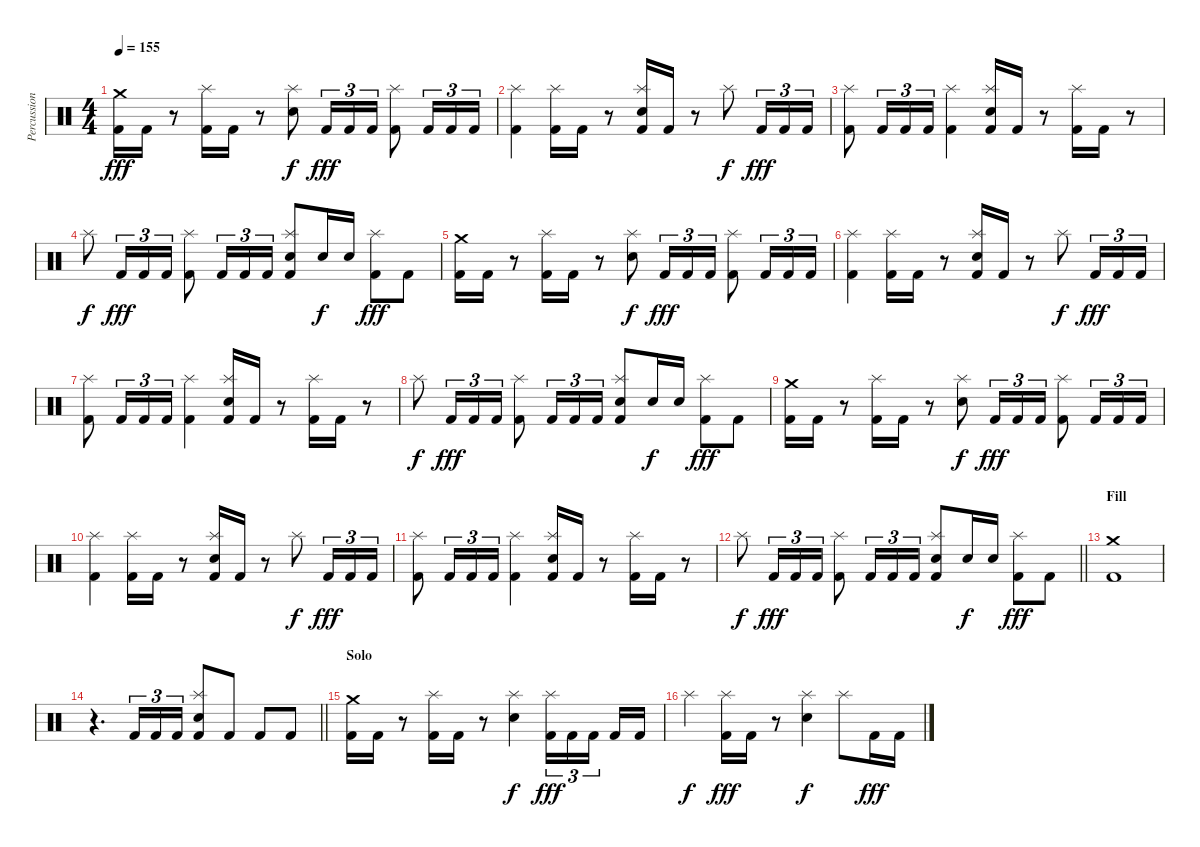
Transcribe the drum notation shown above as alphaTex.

\track ("Percussion" "Percussion") {instrument percussion}
\staff {score}
\articulation defaults
\ts (4 4)
\tempo 155
\clef neutral
\ks c
("Crash medium (hit)" "Kick (hit) 2").16{dy fff} "Kick (hit) 2".16 r.8 ("Splash (hit)" "Kick (hit) 2").16 "Kick (hit) 2".16 r.8 ("Splash (hit)" "Electric Snare (hit)").8{dy f} "Kick (hit) 2".16{tu (3 2) dy fff} "Kick (hit) 2".16{tu (3 2)} "Kick (hit) 2".16{tu (3 2)} ("Splash (hit)" "Kick (hit) 2").8 "Kick (hit) 2".16{tu (3 2)} "Kick (hit) 2".16{tu (3 2)} "Kick (hit) 2".16{tu (3 2)} |
("Splash (hit)" "Kick (hit) 2").4 ("Splash (hit)" "Kick (hit) 2").16 "Kick (hit) 2".16 r.8 ("Splash (hit)" "Electric Snare (hit)" "Kick (hit) 2").16 "Kick (hit) 2".16 r.8 "Splash (hit)".8{dy f} "Kick (hit) 2".16{tu (3 2) dy fff} "Kick (hit) 2".16{tu (3 2)} "Kick (hit) 2".16{tu (3 2)} |
("Splash (hit)" "Kick (hit) 2").8 "Kick (hit) 2".16{tu (3 2)} "Kick (hit) 2".16{tu (3 2)} "Kick (hit) 2".16{tu (3 2)} ("Splash (hit)" "Kick (hit) 2").4 ("Splash (hit)" "Electric Snare (hit)" "Kick (hit) 2").16 "Kick (hit) 2".16 r.8 ("Splash (hit)" "Kick (hit) 2").16 "Kick (hit) 2".16 r.8 |
"Splash (hit)".8{dy f} "Kick (hit) 2".16{tu (3 2) dy fff} "Kick (hit) 2".16{tu (3 2)} "Kick (hit) 2".16{tu (3 2)} ("Splash (hit)" "Kick (hit) 2").8 "Kick (hit) 2".16{tu (3 2)} "Kick (hit) 2".16{tu (3 2)} "Kick (hit) 2".16{tu (3 2)} ("Splash (hit)" "Electric Snare (hit)" "Kick (hit) 2").8 "Electric Snare (hit)".16{dy f} "Electric Snare (hit)".16 ("Splash (hit)" "Kick (hit) 2").8{dy fff} "Kick (hit) 2".8 |
("Crash medium (hit)" "Kick (hit) 2").16 "Kick (hit) 2".16 r.8 ("Splash (hit)" "Kick (hit) 2").16 "Kick (hit) 2".16 r.8 ("Splash (hit)" "Electric Snare (hit)").8{dy f} "Kick (hit) 2".16{tu (3 2) dy fff} "Kick (hit) 2".16{tu (3 2)} "Kick (hit) 2".16{tu (3 2)} ("Splash (hit)" "Kick (hit) 2").8 "Kick (hit) 2".16{tu (3 2)} "Kick (hit) 2".16{tu (3 2)} "Kick (hit) 2".16{tu (3 2)} |
("Splash (hit)" "Kick (hit) 2").4 ("Splash (hit)" "Kick (hit) 2").16 "Kick (hit) 2".16 r.8 ("Splash (hit)" "Electric Snare (hit)" "Kick (hit) 2").16 "Kick (hit) 2".16 r.8 "Splash (hit)".8{dy f} "Kick (hit) 2".16{tu (3 2) dy fff} "Kick (hit) 2".16{tu (3 2)} "Kick (hit) 2".16{tu (3 2)} |
("Splash (hit)" "Kick (hit) 2").8 "Kick (hit) 2".16{tu (3 2)} "Kick (hit) 2".16{tu (3 2)} "Kick (hit) 2".16{tu (3 2)} ("Splash (hit)" "Kick (hit) 2").4 ("Splash (hit)" "Electric Snare (hit)" "Kick (hit) 2").16 "Kick (hit) 2".16 r.8 ("Splash (hit)" "Kick (hit) 2").16 "Kick (hit) 2".16 r.8 |
"Splash (hit)".8{dy f} "Kick (hit) 2".16{tu (3 2) dy fff} "Kick (hit) 2".16{tu (3 2)} "Kick (hit) 2".16{tu (3 2)} ("Splash (hit)" "Kick (hit) 2").8 "Kick (hit) 2".16{tu (3 2)} "Kick (hit) 2".16{tu (3 2)} "Kick (hit) 2".16{tu (3 2)} ("Splash (hit)" "Electric Snare (hit)" "Kick (hit) 2").8 "Electric Snare (hit)".16{dy f} "Electric Snare (hit)".16 ("Splash (hit)" "Kick (hit) 2").8{dy fff} "Kick (hit) 2".8 |
("Crash medium (hit)" "Kick (hit) 2").16 "Kick (hit) 2".16 r.8 ("Splash (hit)" "Kick (hit) 2").16 "Kick (hit) 2".16 r.8 ("Splash (hit)" "Electric Snare (hit)").8{dy f} "Kick (hit) 2".16{tu (3 2) dy fff} "Kick (hit) 2".16{tu (3 2)} "Kick (hit) 2".16{tu (3 2)} ("Splash (hit)" "Kick (hit) 2").8 "Kick (hit) 2".16{tu (3 2)} "Kick (hit) 2".16{tu (3 2)} "Kick (hit) 2".16{tu (3 2)} |
("Splash (hit)" "Kick (hit) 2").4 ("Splash (hit)" "Kick (hit) 2").16 "Kick (hit) 2".16 r.8 ("Splash (hit)" "Electric Snare (hit)" "Kick (hit) 2").16 "Kick (hit) 2".16 r.8 "Splash (hit)".8{dy f} "Kick (hit) 2".16{tu (3 2) dy fff} "Kick (hit) 2".16{tu (3 2)} "Kick (hit) 2".16{tu (3 2)} |
("Splash (hit)" "Kick (hit) 2").8 "Kick (hit) 2".16{tu (3 2)} "Kick (hit) 2".16{tu (3 2)} "Kick (hit) 2".16{tu (3 2)} ("Splash (hit)" "Kick (hit) 2").4 ("Splash (hit)" "Electric Snare (hit)" "Kick (hit) 2").16 "Kick (hit) 2".16 r.8 ("Splash (hit)" "Kick (hit) 2").16 "Kick (hit) 2".16 r.8 |
\barLineRight lightlight "Splash (hit)".8{dy f} "Kick (hit) 2".16{tu (3 2) dy fff} "Kick (hit) 2".16{tu (3 2)} "Kick (hit) 2".16{tu (3 2)}
("Splash (hit)" "Kick (hit) 2").8 "Kick (hit) 2".16{tu (3 2)} "Kick (hit) 2".16{tu (3 2)} "Kick (hit) 2".16{tu (3 2)} ("Splash (hit)" "Electric Snare (hit)" "Kick (hit) 2").8 "Electric Snare (hit)".16{dy f} "Electric Snare (hit)".16 ("Splash (hit)" "Kick (hit) 2").8{dy fff} "Kick (hit) 2".8 |
\section ("" "Fill")
("Crash medium (hit)" "Kick (hit) 2").1 |
\barLineRight lightlight
r.4{d} "Kick (hit) 2".16{tu (3 2)} "Kick (hit) 2".16{tu (3 2)} "Kick (hit) 2".16{tu (3 2)} ("Splash (hit)" "Electric Snare (hit)" "Kick (hit) 2").8 "Kick (hit) 2".8 "Kick (hit) 2".8 "Kick (hit) 2".8 |
\section ("" "Solo")
("Crash medium (hit)" "Kick (hit) 2").16 "Kick (hit) 2".16 r.8 ("Splash (hit)" "Kick (hit) 2").16 "Kick (hit) 2".16 r.8 ("Splash (hit)" "Electric Snare (hit)").4{dy f} ("Splash (hit)" "Kick (hit) 2").16{tu (3 2) dy fff} "Kick (hit) 2".16{tu (3 2)} "Kick (hit) 2".16{tu (3 2) beam splitsecondary} "Kick (hit) 2".16 "Kick (hit) 2".16 |
"Splash (hit)".4{dy f} ("Splash (hit)" "Kick (hit) 2").16{dy fff} "Kick (hit) 2".16 r.8 ("Splash (hit)" "Electric Snare (hit)").4{dy f} "Splash (hit)".8 "Kick (hit) 2".16{dy fff} "Kick (hit) 2".16
